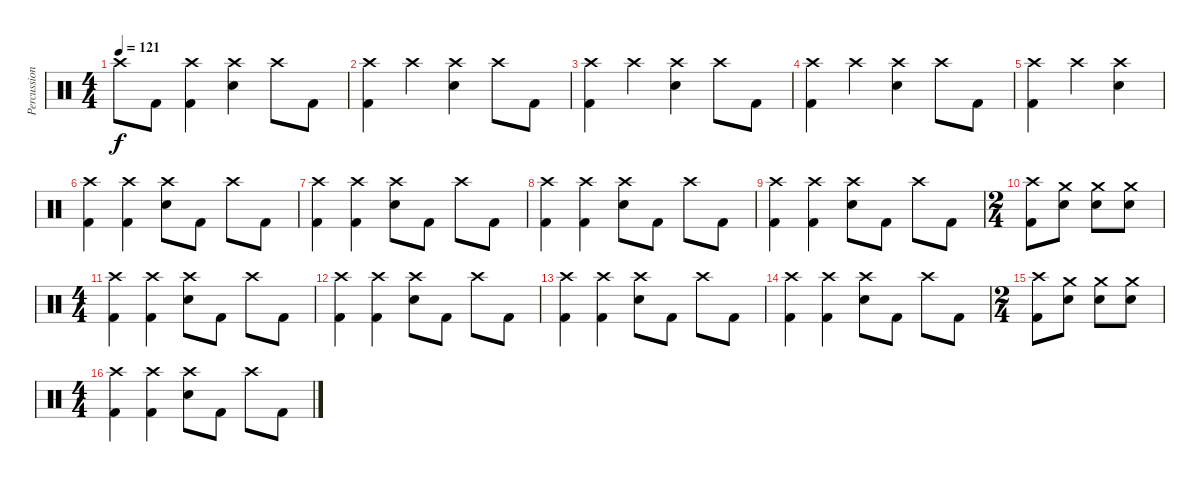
\track ("Percussion" "Percussion") {instrument percussion}
\staff {score}
\articulation defaults
\ts (4 4)
\tempo 121
\clef neutral
\ks c "Crash high (hit)".8{dy f} "Kick (hit) 2".8
("Crash high (hit)" "Kick (hit) 2").4 ("Crash high (hit)" "Snare (hit) 2").4 "Crash high (hit)".8 "Kick (hit) 2".8 |
("Crash high (hit)" "Kick (hit) 2").4 "Crash high (hit)".4 ("Crash high (hit)" "Snare (hit) 2").4 "Crash high (hit)".8 "Kick (hit) 2".8 |
("Crash high (hit)" "Kick (hit) 2").4 "Crash high (hit)".4 ("Crash high (hit)" "Snare (hit) 2").4 "Crash high (hit)".8 "Kick (hit) 2".8 |
("Crash high (hit)" "Kick (hit) 2").4 "Crash high (hit)".4 ("Crash high (hit)" "Snare (hit) 2").4 "Crash high (hit)".8 "Kick (hit) 2".8 |
("Crash high (hit)" "Kick (hit) 2").4 "Crash high (hit)".4 ("Crash high (hit)" "Snare (hit) 2").4 |
("Crash high (hit)" "Kick (hit) 2").4 ("Crash high (hit)" "Kick (hit) 2").4 ("Crash high (hit)" "Snare (hit) 2").8 "Kick (hit) 2".8 "Crash high (hit)".8 "Kick (hit) 2".8 |
("Crash high (hit)" "Kick (hit) 2").4 ("Crash high (hit)" "Kick (hit) 2").4 ("Crash high (hit)" "Snare (hit) 2").8 "Kick (hit) 2".8 "Crash high (hit)".8 "Kick (hit) 2".8 |
("Crash high (hit)" "Kick (hit) 2").4 ("Crash high (hit)" "Kick (hit) 2").4 ("Crash high (hit)" "Snare (hit) 2").8 "Kick (hit) 2".8 "Crash high (hit)".8 "Kick (hit) 2".8 |
("Crash high (hit)" "Kick (hit) 2").4 ("Crash high (hit)" "Kick (hit) 2").4 ("Crash high (hit)" "Snare (hit) 2").8 "Kick (hit) 2".8 "Crash high (hit)".8 "Kick (hit) 2".8 |
\ts (2 4)
("Crash high (hit)" "Kick (hit) 2").8 ("Crash medium (hit)" "Snare (hit) 2").8 ("Crash medium (hit)" "Snare (hit) 2").8 ("Crash medium (hit)" "Snare (hit) 2").8 |
\ts (4 4)
("Crash high (hit)" "Kick (hit) 2").4 ("Crash high (hit)" "Kick (hit) 2").4 ("Crash high (hit)" "Snare (hit) 2").8 "Kick (hit) 2".8 "Crash high (hit)".8 "Kick (hit) 2".8 |
("Crash high (hit)" "Kick (hit) 2").4 ("Crash high (hit)" "Kick (hit) 2").4 ("Crash high (hit)" "Snare (hit) 2").8 "Kick (hit) 2".8 "Crash high (hit)".8 "Kick (hit) 2".8 |
("Crash high (hit)" "Kick (hit) 2").4 ("Crash high (hit)" "Kick (hit) 2").4 ("Crash high (hit)" "Snare (hit) 2").8 "Kick (hit) 2".8 "Crash high (hit)".8 "Kick (hit) 2".8 |
("Crash high (hit)" "Kick (hit) 2").4 ("Crash high (hit)" "Kick (hit) 2").4 ("Crash high (hit)" "Snare (hit) 2").8 "Kick (hit) 2".8 "Crash high (hit)".8 "Kick (hit) 2".8 |
\ts (2 4)
("Crash high (hit)" "Kick (hit) 2").8 ("Crash medium (hit)" "Snare (hit) 2").8 ("Crash medium (hit)" "Snare (hit) 2").8 ("Crash medium (hit)" "Snare (hit) 2").8 |
\ts (4 4)
("Crash high (hit)" "Kick (hit) 2").4 ("Crash high (hit)" "Kick (hit) 2").4 ("Crash high (hit)" "Snare (hit) 2").8 "Kick (hit) 2".8 "Crash high (hit)".8 "Kick (hit) 2".8
